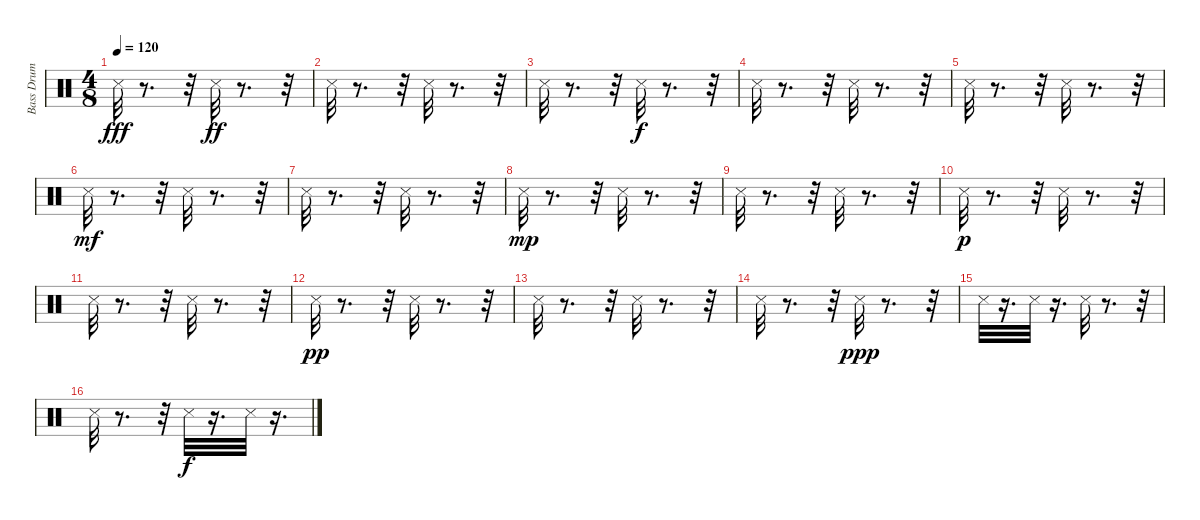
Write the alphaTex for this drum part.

\track ("Bass Drum" "Bass Drum") {instrument percussion}
\staff {score}
\articulation defaults
\ts (4 8)
\tempo 120
\clef neutral
\ks c "Metronome (hit)".32{dy fff}
r.8{d} r.32 "Metronome (hit)".32{dy ff} r.8{d} r.32 |
"Metronome (hit)".32 r.8{d} r.32 "Metronome (hit)".32 r.8{d} r.32 |
"Metronome (hit)".32 r.8{d} r.32 "Metronome (hit)".32{dy f} r.8{d} r.32 |
"Metronome (hit)".32 r.8{d} r.32 "Metronome (hit)".32 r.8{d} r.32 |
"Metronome (hit)".32 r.8{d} r.32 "Metronome (hit)".32 r.8{d} r.32 |
"Metronome (hit)".32{dy mf} r.8{d} r.32 "Metronome (hit)".32 r.8{d} r.32 |
"Metronome (hit)".32 r.8{d} r.32 "Metronome (hit)".32 r.8{d} r.32 |
"Metronome (hit)".32{dy mp} r.8{d} r.32 "Metronome (hit)".32 r.8{d} r.32 |
"Metronome (hit)".32 r.8{d} r.32 "Metronome (hit)".32 r.8{d} r.32 |
"Metronome (hit)".32{dy p} r.8{d} r.32 "Metronome (hit)".32 r.8{d} r.32 |
"Metronome (hit)".32 r.8{d} r.32 "Metronome (hit)".32 r.8{d} r.32 |
"Metronome (hit)".32{dy pp} r.8{d} r.32 "Metronome (hit)".32 r.8{d} r.32 |
"Metronome (hit)".32 r.8{d} r.32 "Metronome (hit)".32 r.8{d} r.32 |
"Metronome (hit)".32 r.8{d} r.32 "Metronome (hit)".32{dy ppp} r.8{d} r.32 |
"Metronome (hit)".32 r.16{d} "Metronome (hit)".32 r.16{d} "Metronome (hit)".32 r.8{d} r.32 |
"Metronome (hit)".32 r.8{d} r.32 "Metronome (hit)".32{dy f} r.16{d} "Metronome (hit)".32 r.16{d}
